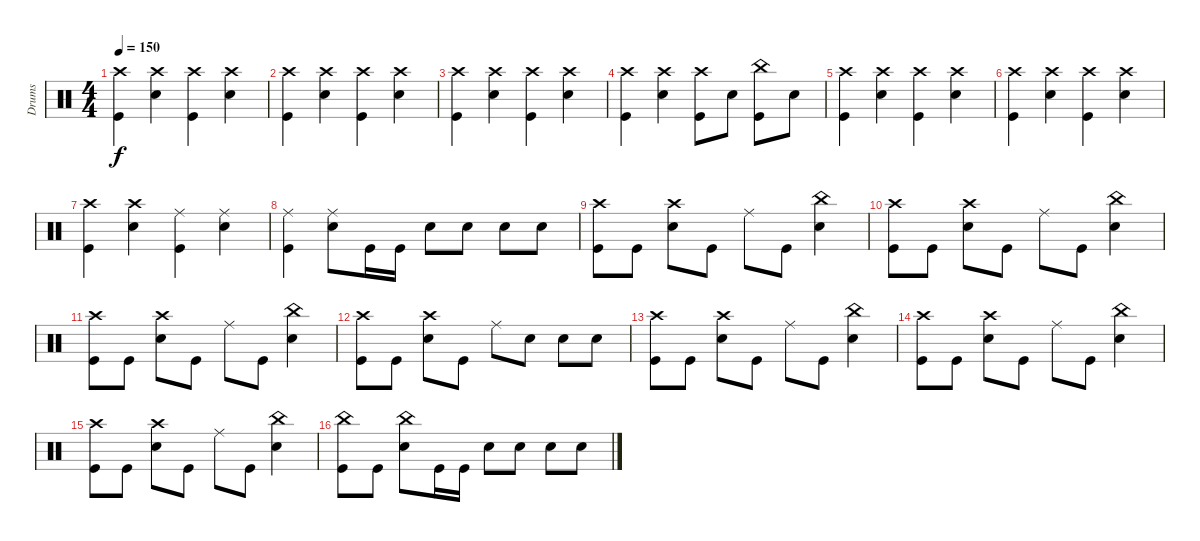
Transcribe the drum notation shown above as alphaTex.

\track ("Drums" "Drums") {instrument percussion}
\staff {score}
\articulation defaults
\ts (4 4)
\tempo 150
\clef neutral
\ks c
("Kick (hit)" "Crash high (hit)").4{dy f} ("Snare (hit) 2" "Crash high (hit)").4 ("Kick (hit)" "Crash high (hit)").4 ("Snare (hit) 2" "Crash high (hit)").4 |
("Kick (hit)" "Crash high (hit)").4 ("Snare (hit) 2" "Crash high (hit)").4 ("Kick (hit)" "Crash high (hit)").4 ("Snare (hit) 2" "Crash high (hit)").4 |
("Kick (hit)" "Crash high (hit)").4 ("Snare (hit) 2" "Crash high (hit)").4 ("Kick (hit)" "Crash high (hit)").4 ("Snare (hit) 2" "Crash high (hit)").4 |
("Kick (hit)" "Crash high (hit)").4 ("Snare (hit) 2" "Crash high (hit)").4 ("Kick (hit)" "Crash high (hit)").8 "Snare (hit) 2".8 ("Kick (hit)" "China (hit)").8 "Snare (hit) 2".8 |
("Kick (hit)" "Crash high (hit)").4 ("Snare (hit) 2" "Crash high (hit)").4 ("Kick (hit)" "Crash high (hit)").4 ("Snare (hit) 2" "Crash high (hit)").4 |
("Kick (hit)" "Crash high (hit)").4 ("Snare (hit) 2" "Crash high (hit)").4 ("Kick (hit)" "Crash high (hit)").4 ("Snare (hit) 2" "Crash high (hit)").4 |
("Kick (hit)" "Crash high (hit)").4 ("Snare (hit) 2" "Crash high (hit)").4 ("Kick (hit)" "Ride (middle)").4 ("Snare (hit) 2" "Ride (middle)").4 |
("Kick (hit)" "Ride (middle)").4 ("Snare (hit) 2" "Ride (middle)").8 "Kick (hit)".16 "Kick (hit)".16 "Snare (hit) 2".8 "Snare (hit) 2".8 "Snare (hit) 2".8 "Snare (hit) 2".8 |
("Kick (hit)" "Crash high (hit)").8 "Kick (hit)".8 ("Snare (hit) 2" "Crash high (hit)").8 "Kick (hit)".8 "Ride (middle)".8 "Kick (hit)".8 ("Snare (hit) 2" "China (hit)").4 |
("Kick (hit)" "Crash high (hit)").8 "Kick (hit)".8 ("Snare (hit) 2" "Crash high (hit)").8 "Kick (hit)".8 "Ride (middle)".8 "Kick (hit)".8 ("Snare (hit) 2" "China (hit)").4 |
("Kick (hit)" "Crash high (hit)").8 "Kick (hit)".8 ("Snare (hit) 2" "Crash high (hit)").8 "Kick (hit)".8 "Ride (middle)".8 "Kick (hit)".8 ("Snare (hit) 2" "China (hit)").4 |
("Kick (hit)" "Crash high (hit)").8 "Kick (hit)".8 ("Snare (hit) 2" "Crash high (hit)").8 "Kick (hit)".8 "Ride (middle)".8 "Snare (hit) 2".8 "Snare (hit) 2".8 "Snare (hit) 2".8 |
("Kick (hit)" "Crash high (hit)").8 "Kick (hit)".8 ("Snare (hit) 2" "Crash high (hit)").8 "Kick (hit)".8 "Ride (middle)".8 "Kick (hit)".8 ("Snare (hit) 2" "China (hit)").4 |
("Kick (hit)" "Crash high (hit)").8 "Kick (hit)".8 ("Snare (hit) 2" "Crash high (hit)").8 "Kick (hit)".8 "Ride (middle)".8 "Kick (hit)".8 ("Snare (hit) 2" "China (hit)").4 |
("Kick (hit)" "Crash high (hit)").8 "Kick (hit)".8 ("Snare (hit) 2" "Crash high (hit)").8 "Kick (hit)".8 "Ride (middle)".8 "Kick (hit)".8 ("Snare (hit) 2" "China (hit)").4 |
("Kick (hit)" "China (hit)").8 "Kick (hit)".8 ("Snare (hit) 2" "China (hit)").8 "Kick (hit)".16 "Kick (hit)".16 "Snare (hit) 2".8 "Snare (hit) 2".8 "Snare (hit) 2".8 "Snare (hit) 2".8
